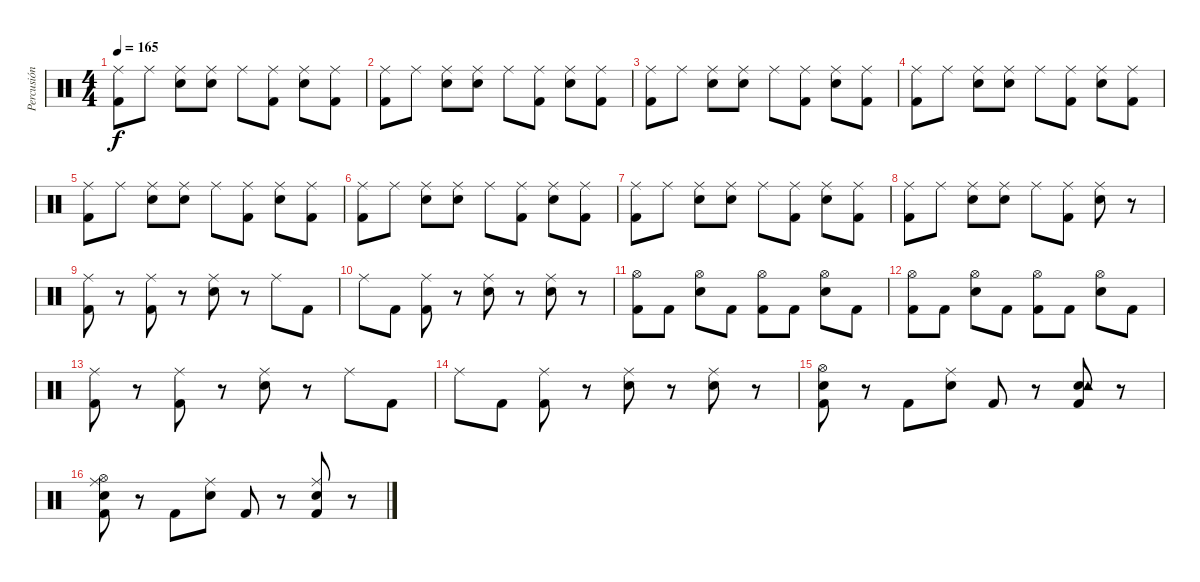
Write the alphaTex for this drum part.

\track ("Percusión" "Percusión") {instrument percussion}
\staff {score}
\articulation defaults
\ts (4 4)
\tempo 165
\clef neutral
\ks c
("Kick (hit) 2" "Ride (middle)").8{dy f} "Ride (middle)".8 ("Snare (hit) 2" "Ride (middle)").8 ("Snare (hit) 2" "Ride (middle)").8 "Ride (middle)".8 ("Kick (hit) 2" "Ride (middle)").8 ("Snare (hit) 2" "Ride (middle)").8 ("Kick (hit) 2" "Ride (middle)").8 |
("Kick (hit) 2" "Ride (middle)").8 "Ride (middle)".8 ("Snare (hit) 2" "Ride (middle)").8 ("Snare (hit) 2" "Ride (middle)").8 "Ride (middle)".8 ("Kick (hit) 2" "Ride (middle)").8 ("Snare (hit) 2" "Ride (middle)").8 ("Kick (hit) 2" "Ride (middle)").8 |
("Kick (hit) 2" "Ride (middle)").8 "Ride (middle)".8 ("Snare (hit) 2" "Ride (middle)").8 ("Snare (hit) 2" "Ride (middle)").8 "Ride (middle)".8 ("Kick (hit) 2" "Ride (middle)").8 ("Snare (hit) 2" "Ride (middle)").8 ("Kick (hit) 2" "Ride (middle)").8 |
("Kick (hit) 2" "Ride (middle)").8 "Ride (middle)".8 ("Snare (hit) 2" "Ride (middle)").8 ("Snare (hit) 2" "Ride (middle)").8 "Ride (middle)".8 ("Kick (hit) 2" "Ride (middle)").8 ("Snare (hit) 2" "Ride (middle)").8 ("Kick (hit) 2" "Ride (middle)").8 |
("Kick (hit) 2" "Ride (middle)").8 "Ride (middle)".8 ("Snare (hit) 2" "Ride (middle)").8 ("Snare (hit) 2" "Ride (middle)").8 "Ride (middle)".8 ("Kick (hit) 2" "Ride (middle)").8 ("Snare (hit) 2" "Ride (middle)").8 ("Kick (hit) 2" "Ride (middle)").8 |
("Kick (hit) 2" "Ride (middle)").8 "Ride (middle)".8 ("Snare (hit) 2" "Ride (middle)").8 ("Snare (hit) 2" "Ride (middle)").8 "Ride (middle)".8 ("Kick (hit) 2" "Ride (middle)").8 ("Snare (hit) 2" "Ride (middle)").8 ("Kick (hit) 2" "Ride (middle)").8 |
("Kick (hit) 2" "Ride (middle)").8 "Ride (middle)".8 ("Snare (hit) 2" "Ride (middle)").8 ("Snare (hit) 2" "Ride (middle)").8 "Ride (middle)".8 ("Kick (hit) 2" "Ride (middle)").8 ("Snare (hit) 2" "Ride (middle)").8 ("Kick (hit) 2" "Ride (middle)").8 |
("Kick (hit) 2" "Ride (middle)").8 "Ride (middle)".8 ("Snare (hit) 2" "Ride (middle)").8 ("Snare (hit) 2" "Ride (middle)").8 "Ride (middle)".8 ("Kick (hit) 2" "Ride (middle)").8 ("Snare (hit) 2" "Ride (middle)").8 r.8 |
("Kick (hit) 2" "Ride (middle)").8 r.8 ("Kick (hit) 2" "Ride (middle)").8 r.8 ("Snare (hit) 2" "Ride (middle)").8 r.8 "Ride (middle)".8 "Kick (hit) 2".8 |
"Ride (middle)".8 "Kick (hit) 2".8 ("Kick (hit) 2" "Ride (middle)").8 r.8 ("Snare (hit) 2" "Ride (middle)").8 r.8 ("Snare (hit) 2" "Ride (middle)").8 r.8 |
("Kick (hit) 2" "Hi-Hat (open)").8 "Kick (hit) 2".8 ("Snare (hit) 2" "Hi-Hat (open)").8 "Kick (hit) 2".8 ("Kick (hit) 2" "Hi-Hat (open)").8 "Kick (hit) 2".8 ("Snare (hit) 2" "Hi-Hat (open)").8 "Kick (hit) 2".8 |
("Kick (hit) 2" "Hi-Hat (open)").8 "Kick (hit) 2".8 ("Snare (hit) 2" "Hi-Hat (open)").8 "Kick (hit) 2".8 ("Kick (hit) 2" "Hi-Hat (open)").8 "Kick (hit) 2".8 ("Snare (hit) 2" "Hi-Hat (open)").8 "Kick (hit) 2".8 |
("Kick (hit) 2" "Ride (middle)").8 r.8 ("Kick (hit) 2" "Ride (middle)").8 r.8 ("Snare (hit) 2" "Ride (middle)").8 r.8 "Ride (middle)".8 "Kick (hit) 2".8 |
"Ride (middle)".8 "Kick (hit) 2".8 ("Kick (hit) 2" "Ride (middle)").8 r.8 ("Snare (hit) 2" "Ride (middle)").8 r.8 ("Snare (hit) 2" "Ride (middle)").8 r.8 |
("Snare (hit) 2" "Kick (hit) 2" "Hi-Hat (open)").8 r.8 "Kick (hit) 2".8 ("Snare (hit) 2" "Ride (middle)").8 "Kick (hit) 2".8 r.8 ("Snare (hit) 2" "Kick (hit) 2" "Tambourine (hit)").8 r.8 |
("Snare (hit) 2" "Kick (hit) 2" "Ride (middle)" "Hi-Hat (open)").8 r.8 "Kick (hit) 2".8 ("Snare (hit) 2" "Ride (middle)").8 "Kick (hit) 2".8 r.8 ("Snare (hit) 2" "Kick (hit) 2" "Ride (middle)").8 r.8
